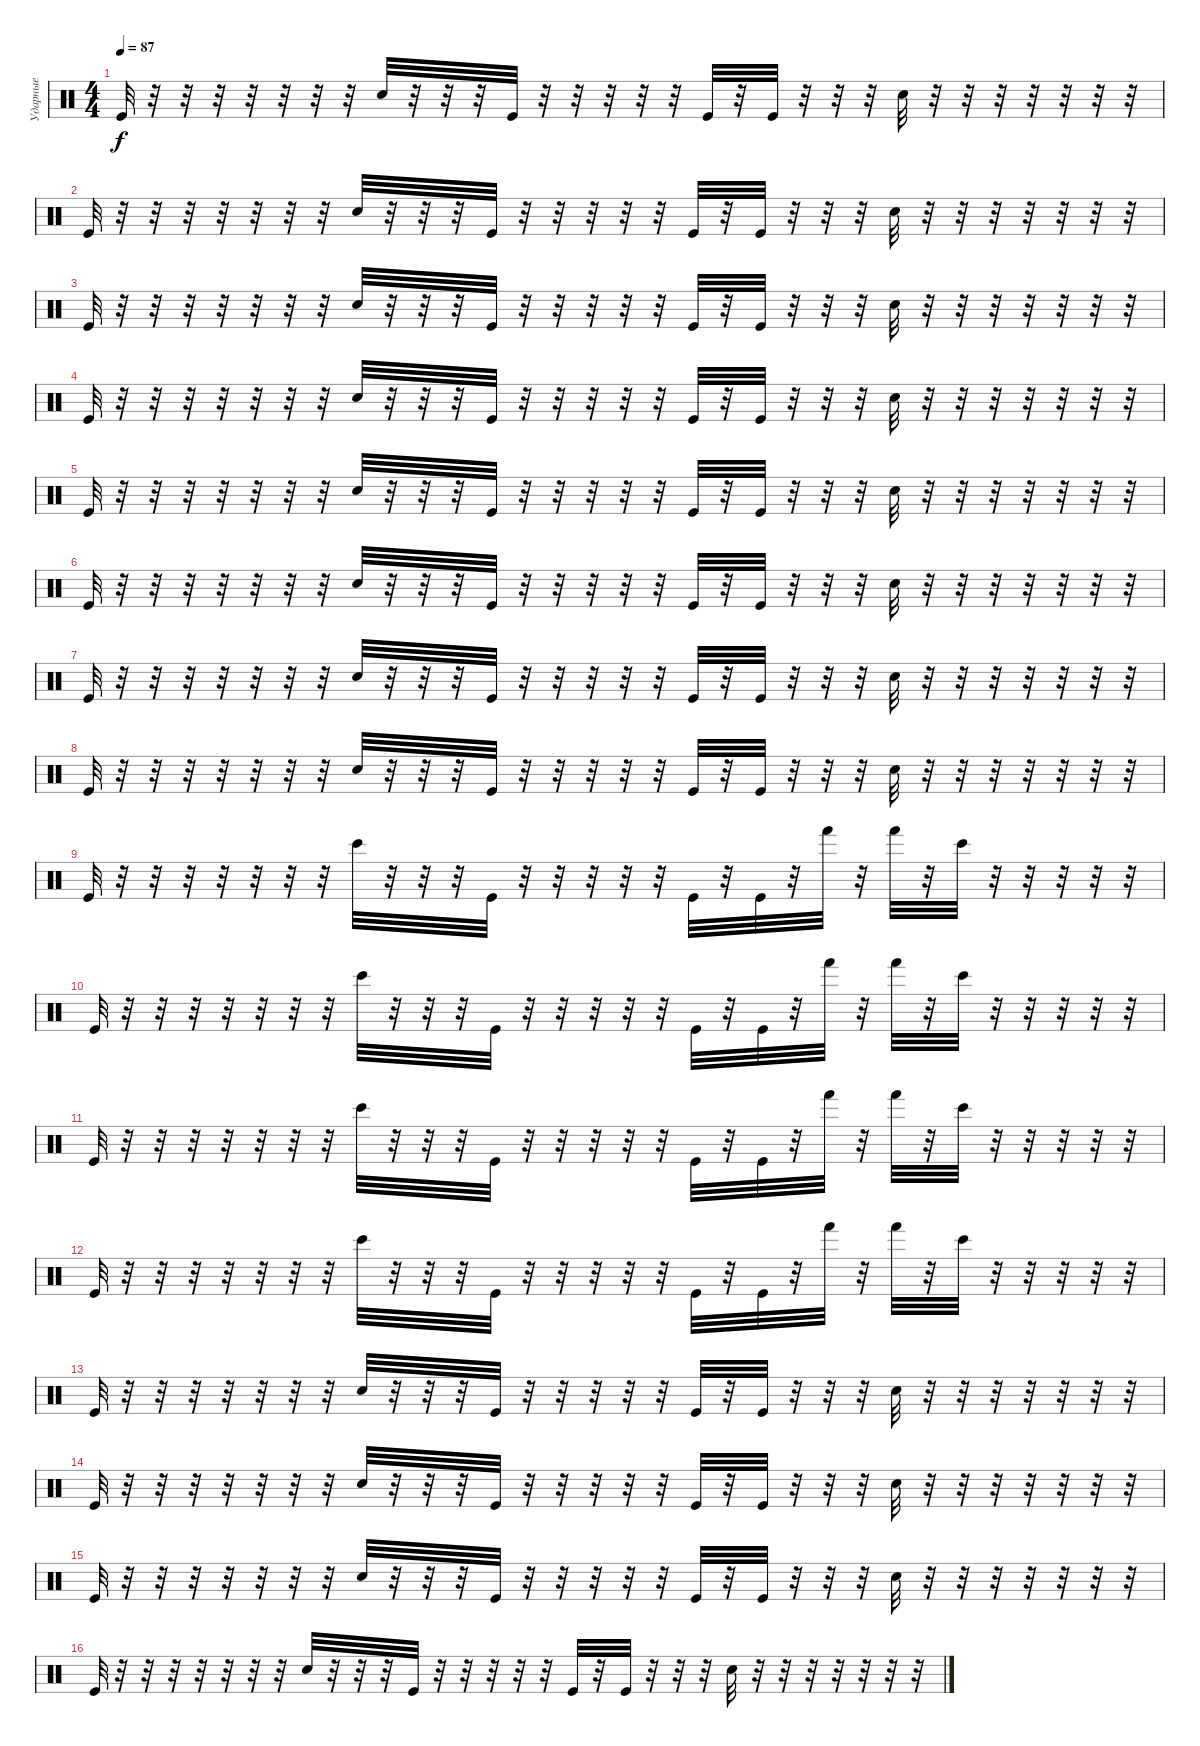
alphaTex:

\track ("Ударные" "Ударные") {instrument percussion}
\staff {score}
\articulation defaults
\ts (4 4)
\tempo 87
\clef neutral
\ks c "Kick (hit)".32{dy f}
r.32 r.32 r.32 r.32 r.32 r.32 r.32 "Hand Clap (hit)".32 r.32 r.32 r.32 "Kick (hit)".32 r.32 r.32 r.32 r.32 r.32 "Kick (hit)".32 r.32 "Kick (hit)".32 r.32 r.32 r.32 "Hand Clap (hit)".32 r.32 r.32 r.32 r.32 r.32 r.32 r.32 |
"Kick (hit)".32 r.32 r.32 r.32 r.32 r.32 r.32 r.32 "Hand Clap (hit)".32 r.32 r.32 r.32 "Kick (hit)".32 r.32 r.32 r.32 r.32 r.32 "Kick (hit)".32 r.32 "Kick (hit)".32 r.32 r.32 r.32 "Hand Clap (hit)".32 r.32 r.32 r.32 r.32 r.32 r.32 r.32 |
"Kick (hit)".32 r.32 r.32 r.32 r.32 r.32 r.32 r.32 "Hand Clap (hit)".32 r.32 r.32 r.32 "Kick (hit)".32 r.32 r.32 r.32 r.32 r.32 "Kick (hit)".32 r.32 "Kick (hit)".32 r.32 r.32 r.32 "Hand Clap (hit)".32 r.32 r.32 r.32 r.32 r.32 r.32 r.32 |
"Kick (hit)".32 r.32 r.32 r.32 r.32 r.32 r.32 r.32 "Hand Clap (hit)".32 r.32 r.32 r.32 "Kick (hit)".32 r.32 r.32 r.32 r.32 r.32 "Kick (hit)".32 r.32 "Kick (hit)".32 r.32 r.32 r.32 "Hand Clap (hit)".32 r.32 r.32 r.32 r.32 r.32 r.32 r.32 |
"Kick (hit)".32 r.32 r.32 r.32 r.32 r.32 r.32 r.32 "Hand Clap (hit)".32 r.32 r.32 r.32 "Kick (hit)".32 r.32 r.32 r.32 r.32 r.32 "Kick (hit)".32 r.32 "Kick (hit)".32 r.32 r.32 r.32 "Hand Clap (hit)".32 r.32 r.32 r.32 r.32 r.32 r.32 r.32 |
"Kick (hit)".32 r.32 r.32 r.32 r.32 r.32 r.32 r.32 "Hand Clap (hit)".32 r.32 r.32 r.32 "Kick (hit)".32 r.32 r.32 r.32 r.32 r.32 "Kick (hit)".32 r.32 "Kick (hit)".32 r.32 r.32 r.32 "Hand Clap (hit)".32 r.32 r.32 r.32 r.32 r.32 r.32 r.32 |
"Kick (hit)".32 r.32 r.32 r.32 r.32 r.32 r.32 r.32 "Hand Clap (hit)".32 r.32 r.32 r.32 "Kick (hit)".32 r.32 r.32 r.32 r.32 r.32 "Kick (hit)".32 r.32 "Kick (hit)".32 r.32 r.32 r.32 "Hand Clap (hit)".32 r.32 r.32 r.32 r.32 r.32 r.32 r.32 |
"Kick (hit)".32 r.32 r.32 r.32 r.32 r.32 r.32 r.32 "Hand Clap (hit)".32 r.32 r.32 r.32 "Kick (hit)".32 r.32 r.32 r.32 r.32 r.32 "Kick (hit)".32 r.32 "Kick (hit)".32 r.32 r.32 r.32 "Hand Clap (hit)".32 r.32 r.32 r.32 r.32 r.32 r.32 r.32 |
"Kick (hit)".32 r.32 r.32 r.32 r.32 r.32 r.32 r.32 "Bongo High (hit)".32 r.32 r.32 r.32 "Kick (hit)".32 r.32 r.32 r.32 r.32 r.32 "Kick (hit)".32 r.32 "Kick (hit)".32 r.32 "Hand (hit)".32 r.32 "Hand (hit)".32 r.32 "Bongo High (hit)".32 r.32 r.32 r.32 r.32 r.32 |
"Kick (hit)".32 r.32 r.32 r.32 r.32 r.32 r.32 r.32 "Bongo High (hit)".32 r.32 r.32 r.32 "Kick (hit)".32 r.32 r.32 r.32 r.32 r.32 "Kick (hit)".32 r.32 "Kick (hit)".32 r.32 "Hand (hit)".32 r.32 "Hand (hit)".32 r.32 "Bongo High (hit)".32 r.32 r.32 r.32 r.32 r.32 |
"Kick (hit)".32 r.32 r.32 r.32 r.32 r.32 r.32 r.32 "Bongo High (hit)".32 r.32 r.32 r.32 "Kick (hit)".32 r.32 r.32 r.32 r.32 r.32 "Kick (hit)".32 r.32 "Kick (hit)".32 r.32 "Hand (hit)".32 r.32 "Hand (hit)".32 r.32 "Bongo High (hit)".32 r.32 r.32 r.32 r.32 r.32 |
"Kick (hit)".32 r.32 r.32 r.32 r.32 r.32 r.32 r.32 "Bongo High (hit)".32 r.32 r.32 r.32 "Kick (hit)".32 r.32 r.32 r.32 r.32 r.32 "Kick (hit)".32 r.32 "Kick (hit)".32 r.32 "Hand (hit)".32 r.32 "Hand (hit)".32 r.32 "Bongo High (hit)".32 r.32 r.32 r.32 r.32 r.32 |
"Kick (hit)".32 r.32 r.32 r.32 r.32 r.32 r.32 r.32 "Hand Clap (hit)".32 r.32 r.32 r.32 "Kick (hit)".32 r.32 r.32 r.32 r.32 r.32 "Kick (hit)".32 r.32 "Kick (hit)".32 r.32 r.32 r.32 "Hand Clap (hit)".32 r.32 r.32 r.32 r.32 r.32 r.32 r.32 |
"Kick (hit)".32 r.32 r.32 r.32 r.32 r.32 r.32 r.32 "Hand Clap (hit)".32 r.32 r.32 r.32 "Kick (hit)".32 r.32 r.32 r.32 r.32 r.32 "Kick (hit)".32 r.32 "Kick (hit)".32 r.32 r.32 r.32 "Hand Clap (hit)".32 r.32 r.32 r.32 r.32 r.32 r.32 r.32 |
"Kick (hit)".32 r.32 r.32 r.32 r.32 r.32 r.32 r.32 "Hand Clap (hit)".32 r.32 r.32 r.32 "Kick (hit)".32 r.32 r.32 r.32 r.32 r.32 "Kick (hit)".32 r.32 "Kick (hit)".32 r.32 r.32 r.32 "Hand Clap (hit)".32 r.32 r.32 r.32 r.32 r.32 r.32 r.32 |
"Kick (hit)".32 r.32 r.32 r.32 r.32 r.32 r.32 r.32 "Hand Clap (hit)".32 r.32 r.32 r.32 "Kick (hit)".32 r.32 r.32 r.32 r.32 r.32 "Kick (hit)".32 r.32 "Kick (hit)".32 r.32 r.32 r.32 "Hand Clap (hit)".32 r.32 r.32 r.32 r.32 r.32 r.32 r.32
